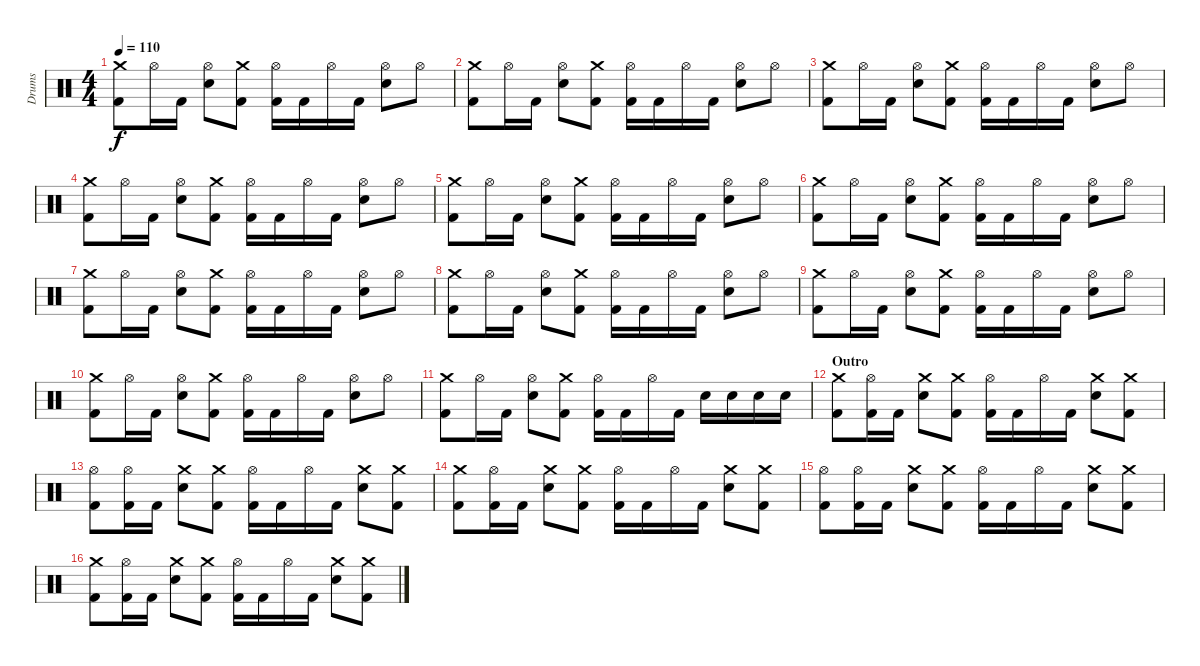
\track ("Drums" "Drums") {instrument percussion}
\staff {score}
\articulation defaults
\ts (4 4)
\tempo 110
\clef neutral
\ks c
("Crash medium (hit)" "Kick (hit) 2").8{dy f} "Hi-Hat (open)".16 "Kick (hit) 2".16 ("Hi-Hat (open)" "Electric Snare (hit)").8 ("Crash medium (hit)" "Kick (hit) 2").8 ("Hi-Hat (open)" "Kick (hit) 2").16 "Kick (hit) 2".16 "Hi-Hat (open)".16 "Kick (hit) 2".16 ("Hi-Hat (open)" "Electric Snare (hit)").8 "Hi-Hat (open)".8 |
("Crash medium (hit)" "Kick (hit) 2").8 "Hi-Hat (open)".16 "Kick (hit) 2".16 ("Hi-Hat (open)" "Electric Snare (hit)").8 ("Crash medium (hit)" "Kick (hit) 2").8 ("Hi-Hat (open)" "Kick (hit) 2").16 "Kick (hit) 2".16 "Hi-Hat (open)".16 "Kick (hit) 2".16 ("Hi-Hat (open)" "Electric Snare (hit)").8 "Hi-Hat (open)".8 |
("Crash medium (hit)" "Kick (hit) 2").8 "Hi-Hat (open)".16 "Kick (hit) 2".16 ("Hi-Hat (open)" "Electric Snare (hit)").8 ("Crash medium (hit)" "Kick (hit) 2").8 ("Hi-Hat (open)" "Kick (hit) 2").16 "Kick (hit) 2".16 "Hi-Hat (open)".16 "Kick (hit) 2".16 ("Hi-Hat (open)" "Electric Snare (hit)").8 "Hi-Hat (open)".8 |
("Crash medium (hit)" "Kick (hit) 2").8 "Hi-Hat (open)".16 "Kick (hit) 2".16 ("Hi-Hat (open)" "Electric Snare (hit)").8 ("Crash medium (hit)" "Kick (hit) 2").8 ("Hi-Hat (open)" "Kick (hit) 2").16 "Kick (hit) 2".16 "Hi-Hat (open)".16 "Kick (hit) 2".16 ("Hi-Hat (open)" "Electric Snare (hit)").8 "Hi-Hat (open)".8 |
("Crash medium (hit)" "Kick (hit) 2").8 "Hi-Hat (open)".16 "Kick (hit) 2".16 ("Hi-Hat (open)" "Electric Snare (hit)").8 ("Crash medium (hit)" "Kick (hit) 2").8 ("Hi-Hat (open)" "Kick (hit) 2").16 "Kick (hit) 2".16 "Hi-Hat (open)".16 "Kick (hit) 2".16 ("Hi-Hat (open)" "Electric Snare (hit)").8 "Hi-Hat (open)".8 |
("Crash medium (hit)" "Kick (hit) 2").8 "Hi-Hat (open)".16 "Kick (hit) 2".16 ("Hi-Hat (open)" "Electric Snare (hit)").8 ("Crash medium (hit)" "Kick (hit) 2").8 ("Hi-Hat (open)" "Kick (hit) 2").16 "Kick (hit) 2".16 "Hi-Hat (open)".16 "Kick (hit) 2".16 ("Hi-Hat (open)" "Electric Snare (hit)").8 "Hi-Hat (open)".8 |
("Crash medium (hit)" "Kick (hit) 2").8 "Hi-Hat (open)".16 "Kick (hit) 2".16 ("Hi-Hat (open)" "Electric Snare (hit)").8 ("Crash medium (hit)" "Kick (hit) 2").8 ("Hi-Hat (open)" "Kick (hit) 2").16 "Kick (hit) 2".16 "Hi-Hat (open)".16 "Kick (hit) 2".16 ("Hi-Hat (open)" "Electric Snare (hit)").8 "Hi-Hat (open)".8 |
("Crash medium (hit)" "Kick (hit) 2").8 "Hi-Hat (open)".16 "Kick (hit) 2".16 ("Hi-Hat (open)" "Electric Snare (hit)").8 ("Crash medium (hit)" "Kick (hit) 2").8 ("Hi-Hat (open)" "Kick (hit) 2").16 "Kick (hit) 2".16 "Hi-Hat (open)".16 "Kick (hit) 2".16 ("Hi-Hat (open)" "Electric Snare (hit)").8 "Hi-Hat (open)".8 |
("Crash medium (hit)" "Kick (hit) 2").8 "Hi-Hat (open)".16 "Kick (hit) 2".16 ("Hi-Hat (open)" "Electric Snare (hit)").8 ("Crash medium (hit)" "Kick (hit) 2").8 ("Hi-Hat (open)" "Kick (hit) 2").16 "Kick (hit) 2".16 "Hi-Hat (open)".16 "Kick (hit) 2".16 ("Hi-Hat (open)" "Electric Snare (hit)").8 "Hi-Hat (open)".8 |
("Crash medium (hit)" "Kick (hit) 2").8 "Hi-Hat (open)".16 "Kick (hit) 2".16 ("Hi-Hat (open)" "Electric Snare (hit)").8 ("Crash medium (hit)" "Kick (hit) 2").8 ("Hi-Hat (open)" "Kick (hit) 2").16 "Kick (hit) 2".16 "Hi-Hat (open)".16 "Kick (hit) 2".16 ("Hi-Hat (open)" "Electric Snare (hit)").8 "Hi-Hat (open)".8 |
("Crash medium (hit)" "Kick (hit) 2").8 "Hi-Hat (open)".16 "Kick (hit) 2".16 ("Hi-Hat (open)" "Electric Snare (hit)").8 ("Crash medium (hit)" "Kick (hit) 2").8 ("Hi-Hat (open)" "Kick (hit) 2").16 "Kick (hit) 2".16 "Hi-Hat (open)".16 "Kick (hit) 2".16 "Electric Snare (hit)".16 "Electric Snare (hit)".16 "Electric Snare (hit)".16 "Electric Snare (hit)".16 |
\section ("" "Outro")
("Crash medium (hit)" "Kick (hit) 2").8 ("Hi-Hat (open)" "Kick (hit) 2").16 "Kick (hit) 2".16 ("Crash medium (hit)" "Electric Snare (hit)").8 ("Crash medium (hit)" "Kick (hit) 2").8 ("Hi-Hat (open)" "Kick (hit) 2").16 "Kick (hit) 2".16 "Hi-Hat (open)".16 "Kick (hit) 2".16 ("Crash medium (hit)" "Electric Snare (hit)").8 ("Crash medium (hit)" "Kick (hit) 2").8 |
("Hi-Hat (open)" "Kick (hit) 2").8 ("Hi-Hat (open)" "Kick (hit) 2").16 "Kick (hit) 2".16 ("Crash medium (hit)" "Electric Snare (hit)").8 ("Crash medium (hit)" "Kick (hit) 2").8 ("Hi-Hat (open)" "Kick (hit) 2").16 "Kick (hit) 2".16 "Hi-Hat (open)".16 "Kick (hit) 2".16 ("Crash medium (hit)" "Electric Snare (hit)").8 ("Crash medium (hit)" "Kick (hit) 2").8 |
("Crash medium (hit)" "Kick (hit) 2").8 ("Hi-Hat (open)" "Kick (hit) 2").16 "Kick (hit) 2".16 ("Crash medium (hit)" "Electric Snare (hit)").8 ("Crash medium (hit)" "Kick (hit) 2").8 ("Hi-Hat (open)" "Kick (hit) 2").16 "Kick (hit) 2".16 "Hi-Hat (open)".16 "Kick (hit) 2".16 ("Crash medium (hit)" "Electric Snare (hit)").8 ("Crash medium (hit)" "Kick (hit) 2").8 |
("Hi-Hat (open)" "Kick (hit) 2").8 ("Hi-Hat (open)" "Kick (hit) 2").16 "Kick (hit) 2".16 ("Crash medium (hit)" "Electric Snare (hit)").8 ("Crash medium (hit)" "Kick (hit) 2").8 ("Hi-Hat (open)" "Kick (hit) 2").16 "Kick (hit) 2".16 "Hi-Hat (open)".16 "Kick (hit) 2".16 ("Crash medium (hit)" "Electric Snare (hit)").8 ("Crash medium (hit)" "Kick (hit) 2").8 |
("Crash medium (hit)" "Kick (hit) 2").8 ("Hi-Hat (open)" "Kick (hit) 2").16 "Kick (hit) 2".16 ("Crash medium (hit)" "Electric Snare (hit)").8 ("Crash medium (hit)" "Kick (hit) 2").8 ("Hi-Hat (open)" "Kick (hit) 2").16 "Kick (hit) 2".16 "Hi-Hat (open)".16 "Kick (hit) 2".16 ("Crash medium (hit)" "Electric Snare (hit)").8 ("Crash medium (hit)" "Kick (hit) 2").8
